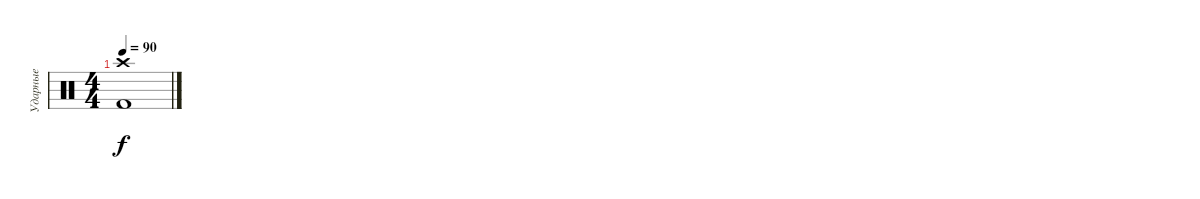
\track ("Ударные" "Ударные") {instrument percussion}
\staff {score}
\articulation defaults
\ts (4 4)
\tempo 90
\clef neutral
\ks c
("Crash high (hit)" "Kick (hit) 2").1{dy f}
